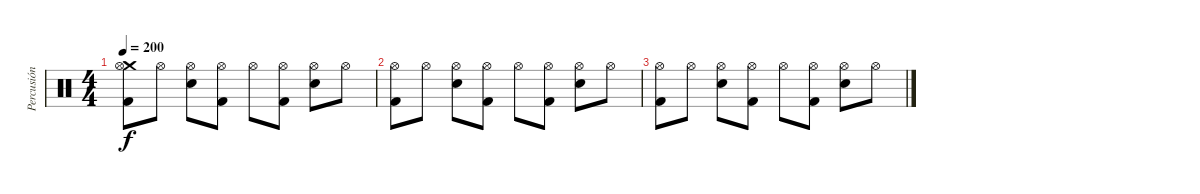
\track ("Percusión" "Percusión") {instrument percussion}
\staff {score}
\articulation defaults
\ts (4 4)
\tempo 200
\clef neutral
\ks c
("Crash medium (hit)" "Hi-Hat (open)" "Kick (hit) 2").8{dy f} "Hi-Hat (open)".8 ("Hi-Hat (open)" "Snare (hit) 2").8 ("Hi-Hat (open)" "Kick (hit) 2").8 "Hi-Hat (open)".8 ("Hi-Hat (open)" "Kick (hit) 2").8 ("Hi-Hat (open)" "Snare (hit) 2").8 "Hi-Hat (open)".8 |
("Hi-Hat (open)" "Kick (hit) 2").8 "Hi-Hat (open)".8 ("Hi-Hat (open)" "Snare (hit) 2").8 ("Hi-Hat (open)" "Kick (hit) 2").8 "Hi-Hat (open)".8 ("Hi-Hat (open)" "Kick (hit) 2").8 ("Hi-Hat (open)" "Snare (hit) 2").8 "Hi-Hat (open)".8 |
("Hi-Hat (open)" "Kick (hit) 2").8 "Hi-Hat (open)".8 ("Hi-Hat (open)" "Snare (hit) 2").8 ("Hi-Hat (open)" "Kick (hit) 2").8 "Hi-Hat (open)".8 ("Hi-Hat (open)" "Kick (hit) 2").8 ("Hi-Hat (open)" "Snare (hit) 2").8 "Hi-Hat (open)".8
